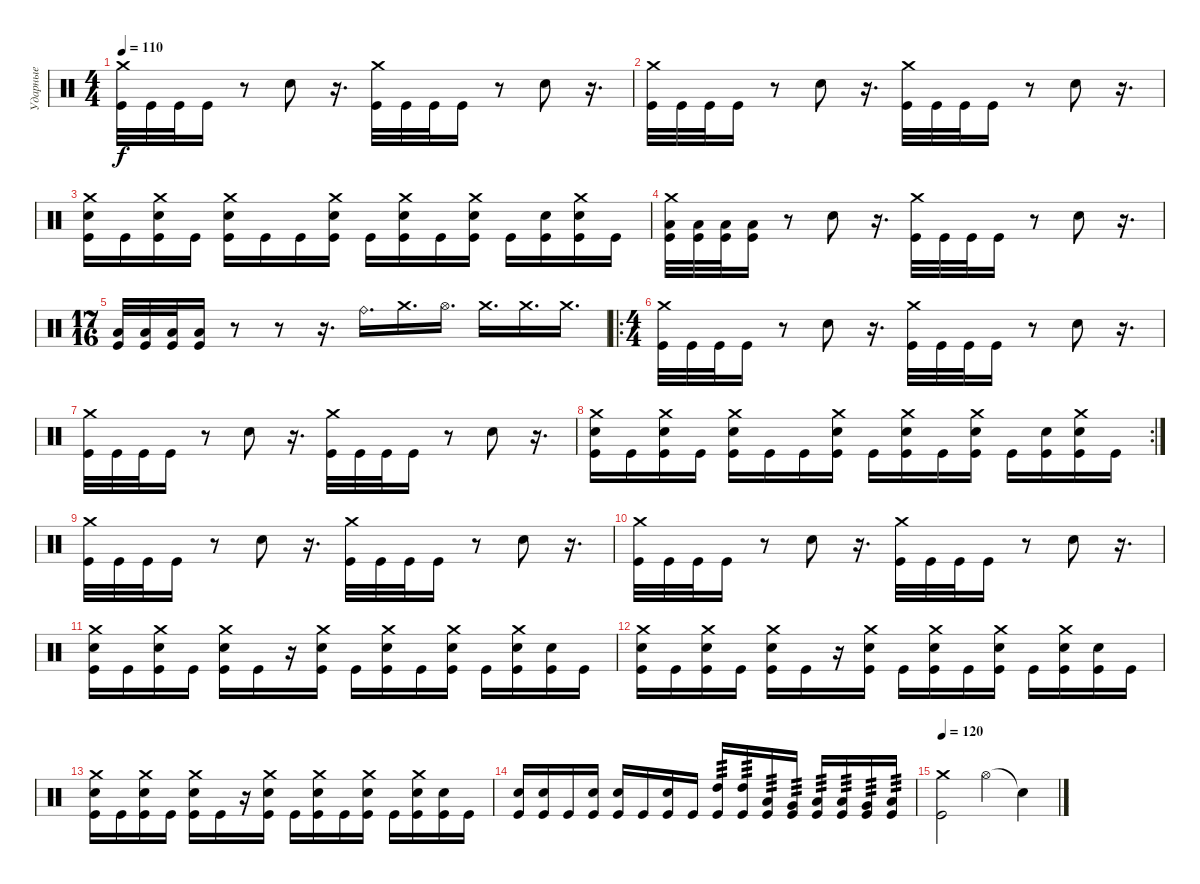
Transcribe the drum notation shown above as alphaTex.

\track ("Ударные" "Ударные") {instrument percussion}
\staff {score}
\articulation defaults
\ts (4 4)
\tempo 110
\clef neutral
\ks c
("Crash medium (hit)" "Kick (hit)").32{dy f} "Kick (hit)".32 "Kick (hit)".32 "Kick (hit)".16 r.8 "Electric Snare (hit)".8 r.16{d} ("Crash medium (hit)" "Kick (hit)").32 "Kick (hit)".32 "Kick (hit)".32 "Kick (hit)".16 r.8 "Electric Snare (hit)".8 r.16{d} |
("Crash medium (hit)" "Kick (hit)").32 "Kick (hit)".32 "Kick (hit)".32 "Kick (hit)".16 r.8 "Electric Snare (hit)".8 r.16{d} ("Crash medium (hit)" "Kick (hit)").32 "Kick (hit)".32 "Kick (hit)".32 "Kick (hit)".16 r.8 "Electric Snare (hit)".8 r.16{d} |
("Crash medium (hit)" "Electric Snare (hit)" "Kick (hit)").16 "Kick (hit)".16 ("Crash medium (hit)" "Electric Snare (hit)" "Kick (hit)").16 "Kick (hit)".16 ("Crash medium (hit)" "Electric Snare (hit)" "Kick (hit)").16 "Kick (hit)".16 "Kick (hit)".16 ("Crash medium (hit)" "Electric Snare (hit)" "Kick (hit)").16 "Kick (hit)".16 ("Crash medium (hit)" "Electric Snare (hit)" "Kick (hit)").16 "Kick (hit)".16 ("Crash medium (hit)" "Electric Snare (hit)" "Kick (hit)").16 "Kick (hit)".16 ("Electric Snare (hit)" "Kick (hit)").16 ("Crash medium (hit)" "Electric Snare (hit)" "Kick (hit)").16 "Kick (hit)".16 |
("Crash medium (hit)" "Low Floor Tom (hit)" "Kick (hit)").32 ("Low Floor Tom (hit)" "Kick (hit)").32 ("Low Floor Tom (hit)" "Kick (hit)").32 ("Low Floor Tom (hit)" "Kick (hit)").16 r.8 "Electric Snare (hit)".8 r.16{d} ("Crash medium (hit)" "Kick (hit)").32 "Kick (hit)".32 "Kick (hit)".32 "Kick (hit)".16 r.8 "Electric Snare (hit)".8 r.16{d} |
\ts (17 16)
("Low Floor Tom (hit)" "Kick (hit)").32 ("Low Floor Tom (hit)" "Kick (hit)").32 ("Low Floor Tom (hit)" "Kick (hit)").32 ("Low Floor Tom (hit)" "Kick (hit)").16 r.8 r.8 r.16{d} "Ride (bell)".16{d} "Crash medium (hit)".16{d} "Hi-Hat (open)".16{d} "Crash medium (hit)".16{d} "Crash medium (hit)".16{d} "Crash medium (hit)".16{d} |
\ro
\ts (4 4)
("Crash medium (hit)" "Kick (hit)").32 "Kick (hit)".32 "Kick (hit)".32 "Kick (hit)".16 r.8 "Electric Snare (hit)".8 r.16{d} ("Crash medium (hit)" "Kick (hit)").32 "Kick (hit)".32 "Kick (hit)".32 "Kick (hit)".16 r.8 "Electric Snare (hit)".8 r.16{d} |
("Crash medium (hit)" "Kick (hit)").32 "Kick (hit)".32 "Kick (hit)".32 "Kick (hit)".16 r.8 "Electric Snare (hit)".8 r.16{d} ("Crash medium (hit)" "Kick (hit)").32 "Kick (hit)".32 "Kick (hit)".32 "Kick (hit)".16 r.8 "Electric Snare (hit)".8 r.16{d} |
\rc 2
("Crash medium (hit)" "Electric Snare (hit)" "Kick (hit)").16 "Kick (hit)".16 ("Crash medium (hit)" "Electric Snare (hit)" "Kick (hit)").16 "Kick (hit)".16 ("Crash medium (hit)" "Electric Snare (hit)" "Kick (hit)").16 "Kick (hit)".16 "Kick (hit)".16 ("Crash medium (hit)" "Electric Snare (hit)" "Kick (hit)").16 "Kick (hit)".16 ("Crash medium (hit)" "Electric Snare (hit)" "Kick (hit)").16 "Kick (hit)".16 ("Crash medium (hit)" "Electric Snare (hit)" "Kick (hit)").16 "Kick (hit)".16 ("Electric Snare (hit)" "Kick (hit)").16 ("Crash medium (hit)" "Electric Snare (hit)" "Kick (hit)").16 "Kick (hit)".16 |
("Crash medium (hit)" "Kick (hit)").32 "Kick (hit)".32 "Kick (hit)".32 "Kick (hit)".16 r.8 "Electric Snare (hit)".8 r.16{d} ("Crash medium (hit)" "Kick (hit)").32 "Kick (hit)".32 "Kick (hit)".32 "Kick (hit)".16 r.8 "Electric Snare (hit)".8 r.16{d} |
("Crash medium (hit)" "Kick (hit)").32 "Kick (hit)".32 "Kick (hit)".32 "Kick (hit)".16 r.8 "Electric Snare (hit)".8 r.16{d} ("Crash medium (hit)" "Kick (hit)").32 "Kick (hit)".32 "Kick (hit)".32 "Kick (hit)".16 r.8 "Electric Snare (hit)".8 r.16{d} |
("Crash medium (hit)" "Electric Snare (hit)" "Kick (hit)").16 "Kick (hit)".16 ("Crash medium (hit)" "Electric Snare (hit)" "Kick (hit)").16 "Kick (hit)".16 ("Crash medium (hit)" "Electric Snare (hit)" "Kick (hit)").16 "Kick (hit)".16 r.16 ("Crash medium (hit)" "Electric Snare (hit)" "Kick (hit)").16 "Kick (hit)".16 ("Crash medium (hit)" "Electric Snare (hit)" "Kick (hit)").16 "Kick (hit)".16 ("Crash medium (hit)" "Electric Snare (hit)" "Kick (hit)").16 "Kick (hit)".16 ("Crash medium (hit)" "Electric Snare (hit)" "Kick (hit)").16 ("Electric Snare (hit)" "Kick (hit)").16 "Kick (hit)".16 |
("Crash medium (hit)" "Electric Snare (hit)" "Kick (hit)").16 "Kick (hit)".16 ("Crash medium (hit)" "Electric Snare (hit)" "Kick (hit)").16 "Kick (hit)".16 ("Crash medium (hit)" "Electric Snare (hit)" "Kick (hit)").16 "Kick (hit)".16 r.16 ("Crash medium (hit)" "Electric Snare (hit)" "Kick (hit)").16 "Kick (hit)".16 ("Crash medium (hit)" "Electric Snare (hit)" "Kick (hit)").16 "Kick (hit)".16 ("Crash medium (hit)" "Electric Snare (hit)" "Kick (hit)").16 "Kick (hit)".16 ("Crash medium (hit)" "Electric Snare (hit)" "Kick (hit)").16 ("Electric Snare (hit)" "Kick (hit)").16 "Kick (hit)".16 |
("Crash medium (hit)" "Electric Snare (hit)" "Kick (hit)").16 "Kick (hit)".16 ("Crash medium (hit)" "Electric Snare (hit)" "Kick (hit)").16 "Kick (hit)".16 ("Crash medium (hit)" "Electric Snare (hit)" "Kick (hit)").16 "Kick (hit)".16 r.16 ("Crash medium (hit)" "Electric Snare (hit)" "Kick (hit)").16 "Kick (hit)".16 ("Crash medium (hit)" "Electric Snare (hit)" "Kick (hit)").16 "Kick (hit)".16 ("Crash medium (hit)" "Electric Snare (hit)" "Kick (hit)").16 "Kick (hit)".16 ("Crash medium (hit)" "Electric Snare (hit)" "Kick (hit)").16 ("Electric Snare (hit)" "Kick (hit)").16 "Kick (hit)".16 |
("Electric Snare (hit)" "Kick (hit)").16 ("Electric Snare (hit)" "Kick (hit)").16 "Kick (hit)".16 ("Electric Snare (hit)" "Kick (hit)").16 ("Electric Snare (hit)" "Kick (hit)").16 "Kick (hit)".16 ("Electric Snare (hit)" "Kick (hit)").16 "Kick (hit)".16 ("High Tom (hit)" "Kick (hit)").16{tp 3} ("High Tom (hit)" "Kick (hit)").16{tp 3} ("Low Tom (hit)" "Kick (hit)").16{tp 3} ("Very Low Tom (hit)" "Kick (hit)").16{tp 3} ("Low Tom (hit)" "Kick (hit)").16{tp 3} ("Low Tom (hit)" "Kick (hit)").16{tp 3} ("Very Low Tom (hit)" "Kick (hit)").16{tp 3} ("Low Floor Tom (hit)" "Kick (hit)").16{tp 3} |
\tempo 120
("Crash medium (hit)" "Kick (hit)").2 "Hi-Hat (open)".4 "Snare (hit)"{t}.4
